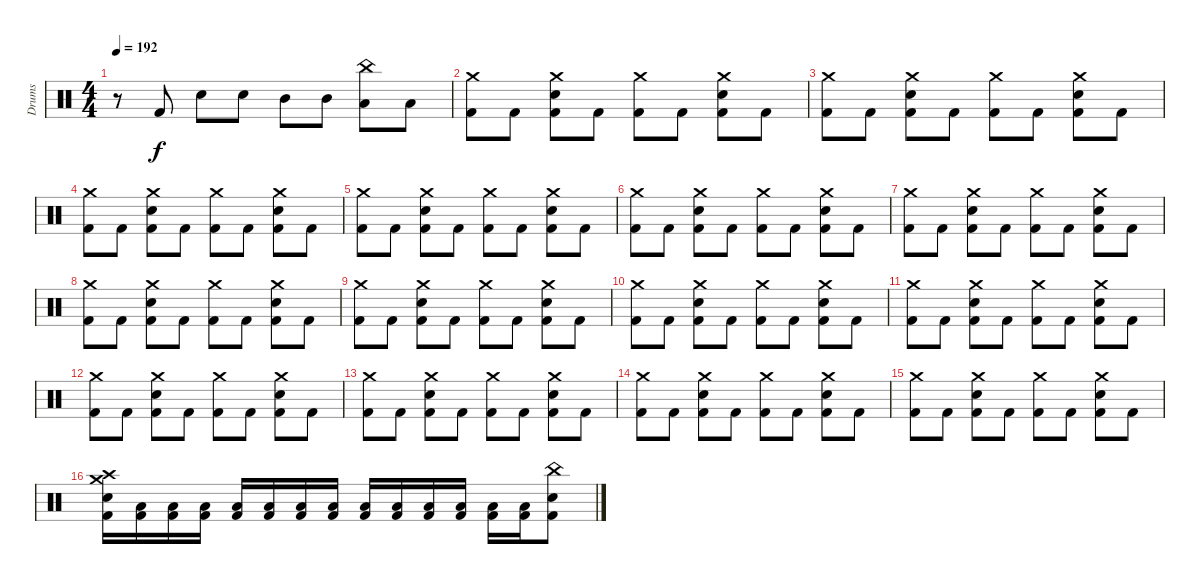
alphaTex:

\track ("Drums" "Drums") {instrument percussion}
\staff {score}
\articulation defaults
\ts (4 4)
\tempo 192
\clef neutral
\ks c
r.8{dy f} "Kick (hit) 2".8 "Snare (hit) 2".8 "Snare (hit) 2".8 "Mid Tom (hit)".8 "Mid Tom (hit)".8 ("China (hit)" "Low Tom (hit)").8 "Low Tom (hit)".8 |
("Crash medium (hit)" "Kick (hit) 2").8 "Kick (hit) 2".8 ("Crash medium (hit)" "Snare (hit) 2" "Kick (hit) 2").8 "Kick (hit) 2".8 ("Crash medium (hit)" "Kick (hit) 2").8 "Kick (hit) 2".8 ("Crash medium (hit)" "Snare (hit) 2" "Kick (hit) 2").8 "Kick (hit) 2".8 |
("Crash medium (hit)" "Kick (hit) 2").8 "Kick (hit) 2".8 ("Crash medium (hit)" "Snare (hit) 2" "Kick (hit) 2").8 "Kick (hit) 2".8 ("Crash medium (hit)" "Kick (hit) 2").8 "Kick (hit) 2".8 ("Crash medium (hit)" "Snare (hit) 2" "Kick (hit) 2").8 "Kick (hit) 2".8 |
("Crash medium (hit)" "Kick (hit) 2").8 "Kick (hit) 2".8 ("Crash medium (hit)" "Snare (hit) 2" "Kick (hit) 2").8 "Kick (hit) 2".8 ("Crash medium (hit)" "Kick (hit) 2").8 "Kick (hit) 2".8 ("Crash medium (hit)" "Snare (hit) 2" "Kick (hit) 2").8 "Kick (hit) 2".8 |
("Crash medium (hit)" "Kick (hit) 2").8 "Kick (hit) 2".8 ("Crash medium (hit)" "Snare (hit) 2" "Kick (hit) 2").8 "Kick (hit) 2".8 ("Crash medium (hit)" "Kick (hit) 2").8 "Kick (hit) 2".8 ("Crash medium (hit)" "Snare (hit) 2" "Kick (hit) 2").8 "Kick (hit) 2".8 |
("Crash medium (hit)" "Kick (hit) 2").8 "Kick (hit) 2".8 ("Crash medium (hit)" "Snare (hit) 2" "Kick (hit) 2").8 "Kick (hit) 2".8 ("Crash medium (hit)" "Kick (hit) 2").8 "Kick (hit) 2".8 ("Crash medium (hit)" "Snare (hit) 2" "Kick (hit) 2").8 "Kick (hit) 2".8 |
("Crash medium (hit)" "Kick (hit) 2").8 "Kick (hit) 2".8 ("Crash medium (hit)" "Snare (hit) 2" "Kick (hit) 2").8 "Kick (hit) 2".8 ("Crash medium (hit)" "Kick (hit) 2").8 "Kick (hit) 2".8 ("Crash medium (hit)" "Snare (hit) 2" "Kick (hit) 2").8 "Kick (hit) 2".8 |
("Crash medium (hit)" "Kick (hit) 2").8 "Kick (hit) 2".8 ("Crash medium (hit)" "Snare (hit) 2" "Kick (hit) 2").8 "Kick (hit) 2".8 ("Crash medium (hit)" "Kick (hit) 2").8 "Kick (hit) 2".8 ("Crash medium (hit)" "Snare (hit) 2" "Kick (hit) 2").8 "Kick (hit) 2".8 |
("Crash medium (hit)" "Kick (hit) 2").8 "Kick (hit) 2".8 ("Crash medium (hit)" "Snare (hit) 2" "Kick (hit) 2").8 "Kick (hit) 2".8 ("Crash medium (hit)" "Kick (hit) 2").8 "Kick (hit) 2".8 ("Crash medium (hit)" "Snare (hit) 2" "Kick (hit) 2").8 "Kick (hit) 2".8 |
("Crash medium (hit)" "Kick (hit) 2").8 "Kick (hit) 2".8 ("Crash medium (hit)" "Snare (hit) 2" "Kick (hit) 2").8 "Kick (hit) 2".8 ("Crash medium (hit)" "Kick (hit) 2").8 "Kick (hit) 2".8 ("Crash medium (hit)" "Snare (hit) 2" "Kick (hit) 2").8 "Kick (hit) 2".8 |
("Crash medium (hit)" "Kick (hit) 2").8 "Kick (hit) 2".8 ("Crash medium (hit)" "Snare (hit) 2" "Kick (hit) 2").8 "Kick (hit) 2".8 ("Crash medium (hit)" "Kick (hit) 2").8 "Kick (hit) 2".8 ("Crash medium (hit)" "Snare (hit) 2" "Kick (hit) 2").8 "Kick (hit) 2".8 |
("Crash medium (hit)" "Kick (hit) 2").8 "Kick (hit) 2".8 ("Crash medium (hit)" "Snare (hit) 2" "Kick (hit) 2").8 "Kick (hit) 2".8 ("Crash medium (hit)" "Kick (hit) 2").8 "Kick (hit) 2".8 ("Crash medium (hit)" "Snare (hit) 2" "Kick (hit) 2").8 "Kick (hit) 2".8 |
("Crash medium (hit)" "Kick (hit) 2").8 "Kick (hit) 2".8 ("Crash medium (hit)" "Snare (hit) 2" "Kick (hit) 2").8 "Kick (hit) 2".8 ("Crash medium (hit)" "Kick (hit) 2").8 "Kick (hit) 2".8 ("Crash medium (hit)" "Snare (hit) 2" "Kick (hit) 2").8 "Kick (hit) 2".8 |
("Crash medium (hit)" "Kick (hit) 2").8 "Kick (hit) 2".8 ("Crash medium (hit)" "Snare (hit) 2" "Kick (hit) 2").8 "Kick (hit) 2".8 ("Crash medium (hit)" "Kick (hit) 2").8 "Kick (hit) 2".8 ("Crash medium (hit)" "Snare (hit) 2" "Kick (hit) 2").8 "Kick (hit) 2".8 |
("Crash medium (hit)" "Kick (hit) 2").8 "Kick (hit) 2".8 ("Crash medium (hit)" "Snare (hit) 2" "Kick (hit) 2").8 "Kick (hit) 2".8 ("Crash medium (hit)" "Kick (hit) 2").8 "Kick (hit) 2".8 ("Crash medium (hit)" "Snare (hit) 2" "Kick (hit) 2").8 "Kick (hit) 2".8 |
("Crash medium (hit)" "Crash high (hit)" "Snare (hit) 2" "Kick (hit) 2").16 ("Low Tom (hit)" "Kick (hit) 2").16 ("Low Tom (hit)" "Kick (hit) 2").16 ("Low Tom (hit)" "Kick (hit) 2").16 ("Low Tom (hit)" "Kick (hit) 2").16 ("Low Tom (hit)" "Kick (hit) 2").16 ("Low Tom (hit)" "Kick (hit) 2").16 ("Low Tom (hit)" "Kick (hit) 2").16 ("Low Tom (hit)" "Kick (hit) 2").16 ("Low Tom (hit)" "Kick (hit) 2").16 ("Low Tom (hit)" "Kick (hit) 2").16 ("Low Tom (hit)" "Kick (hit) 2").16 ("Low Tom (hit)" "Kick (hit) 2").16 ("Low Tom (hit)" "Kick (hit) 2").16 ("China (hit)" "Snare (hit) 2" "Kick (hit) 2").8
